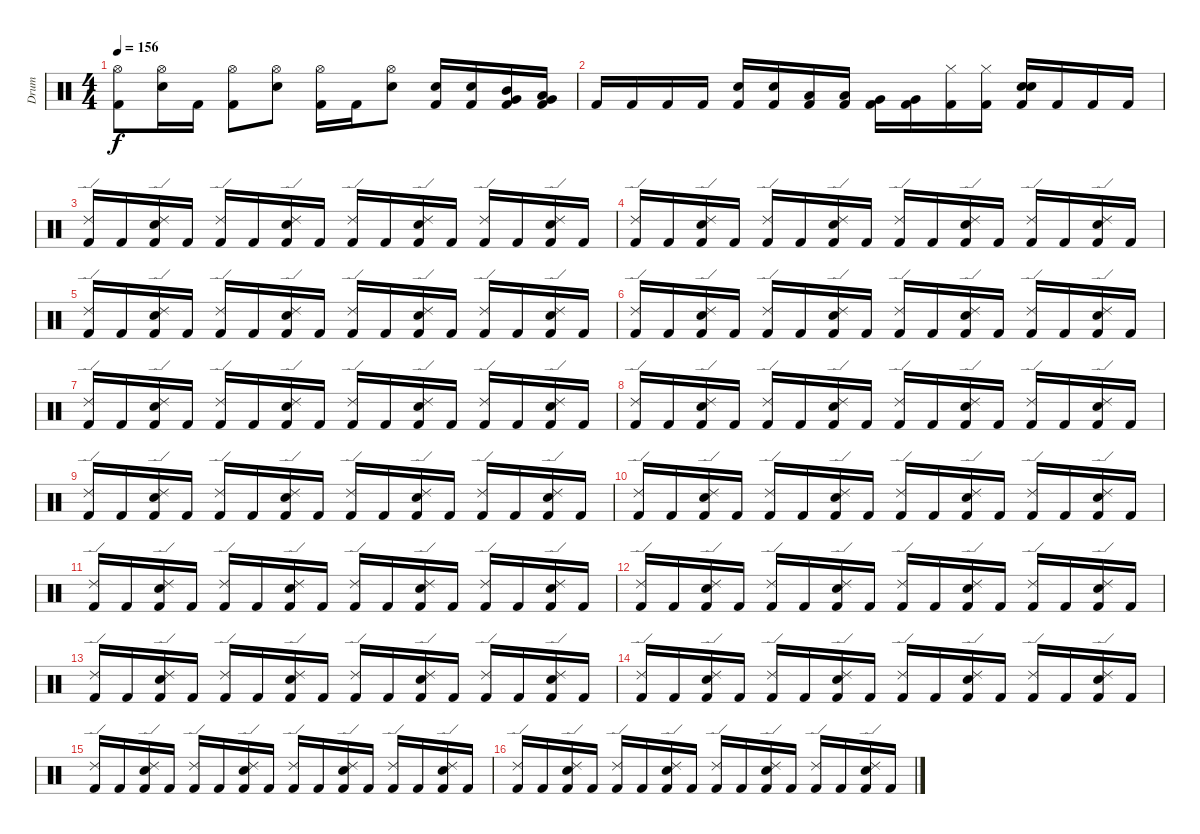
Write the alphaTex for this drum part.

\track (" Drum" " Drum") {instrument percussion}
\staff {score}
\articulation defaults
\ts (4 4)
\tempo 156
\clef neutral
\ks c
("Kick (hit) 2" "Hi-Hat (open)").8{dy f} ("Snare (hit) 2" "Hi-Hat (open)").16 "Kick (hit) 2".16 ("Kick (hit) 2" "Hi-Hat (open)").8 ("Snare (hit) 2" "Hi-Hat (open)").8 ("Kick (hit) 2" "Hi-Hat (open)").16 "Kick (hit) 2".16 ("Snare (hit) 2" "Hi-Hat (open)").8 ("Snare (hit) 2" "Kick (hit) 2").16 ("Snare (hit) 2" "Kick (hit) 2").16 ("Very Low Tom (hit)" "Mid Tom (hit)" "Kick (hit) 2").16 ("Low Tom (hit)" "Very Low Tom (hit)" "Kick (hit) 2").16 |
"Kick (hit) 2".16 "Kick (hit) 2".16 "Kick (hit) 2".16 "Kick (hit) 2".16 ("Snare (hit) 2" "Kick (hit) 2").16 ("Snare (hit) 2" "Kick (hit) 2").16 ("Low Tom (hit)" "Kick (hit) 2").16 ("Low Tom (hit)" "Kick (hit) 2").16 ("Very Low Tom (hit)" "Kick (hit) 2").16 ("Very Low Tom (hit)" "Kick (hit) 2").16 ("Hi-Hat (closed)" "Kick (hit) 2").16 ("Hi-Hat (closed)" "Kick (hit) 2").16 ("Snare (hit) 2" "Electric Snare (hit)" "Kick (hit) 2").16 "Kick (hit) 2".16 "Kick (hit) 2".16 "Kick (hit) 2".16 |
("Ride (edge) 2" "Kick (hit) 2").16 "Kick (hit) 2".16 ("Snare (hit) 2" "Ride (edge) 2" "Kick (hit) 2").16 "Kick (hit) 2".16 ("Ride (edge) 2" "Kick (hit) 2").16 "Kick (hit) 2".16 ("Snare (hit) 2" "Ride (edge) 2" "Kick (hit) 2").16 "Kick (hit) 2".16 ("Ride (edge) 2" "Kick (hit) 2").16 "Kick (hit) 2".16 ("Snare (hit) 2" "Ride (edge) 2" "Kick (hit) 2").16 "Kick (hit) 2".16 ("Ride (edge) 2" "Kick (hit) 2").16 "Kick (hit) 2".16 ("Snare (hit) 2" "Ride (edge) 2" "Kick (hit) 2").16 "Kick (hit) 2".16 |
("Ride (edge) 2" "Kick (hit) 2").16 "Kick (hit) 2".16 ("Snare (hit) 2" "Ride (edge) 2" "Kick (hit) 2").16 "Kick (hit) 2".16 ("Ride (edge) 2" "Kick (hit) 2").16 "Kick (hit) 2".16 ("Snare (hit) 2" "Ride (edge) 2" "Kick (hit) 2").16 "Kick (hit) 2".16 ("Ride (edge) 2" "Kick (hit) 2").16 "Kick (hit) 2".16 ("Snare (hit) 2" "Ride (edge) 2" "Kick (hit) 2").16 "Kick (hit) 2".16 ("Ride (edge) 2" "Kick (hit) 2").16 "Kick (hit) 2".16 ("Snare (hit) 2" "Ride (edge) 2" "Kick (hit) 2").16 "Kick (hit) 2".16 |
("Ride (edge) 2" "Kick (hit) 2").16 "Kick (hit) 2".16 ("Snare (hit) 2" "Ride (edge) 2" "Kick (hit) 2").16 "Kick (hit) 2".16 ("Ride (edge) 2" "Kick (hit) 2").16 "Kick (hit) 2".16 ("Snare (hit) 2" "Ride (edge) 2" "Kick (hit) 2").16 "Kick (hit) 2".16 ("Ride (edge) 2" "Kick (hit) 2").16 "Kick (hit) 2".16 ("Snare (hit) 2" "Ride (edge) 2" "Kick (hit) 2").16 "Kick (hit) 2".16 ("Ride (edge) 2" "Kick (hit) 2").16 "Kick (hit) 2".16 ("Snare (hit) 2" "Ride (edge) 2" "Kick (hit) 2").16 "Kick (hit) 2".16 |
("Ride (edge) 2" "Kick (hit) 2").16 "Kick (hit) 2".16 ("Snare (hit) 2" "Ride (edge) 2" "Kick (hit) 2").16 "Kick (hit) 2".16 ("Ride (edge) 2" "Kick (hit) 2").16 "Kick (hit) 2".16 ("Snare (hit) 2" "Ride (edge) 2" "Kick (hit) 2").16 "Kick (hit) 2".16 ("Ride (edge) 2" "Kick (hit) 2").16 "Kick (hit) 2".16 ("Snare (hit) 2" "Ride (edge) 2" "Kick (hit) 2").16 "Kick (hit) 2".16 ("Ride (edge) 2" "Kick (hit) 2").16 "Kick (hit) 2".16 ("Snare (hit) 2" "Ride (edge) 2" "Kick (hit) 2").16 "Kick (hit) 2".16 |
("Ride (edge) 2" "Kick (hit) 2").16 "Kick (hit) 2".16 ("Snare (hit) 2" "Ride (edge) 2" "Kick (hit) 2").16 "Kick (hit) 2".16 ("Ride (edge) 2" "Kick (hit) 2").16 "Kick (hit) 2".16 ("Snare (hit) 2" "Ride (edge) 2" "Kick (hit) 2").16 "Kick (hit) 2".16 ("Ride (edge) 2" "Kick (hit) 2").16 "Kick (hit) 2".16 ("Snare (hit) 2" "Ride (edge) 2" "Kick (hit) 2").16 "Kick (hit) 2".16 ("Ride (edge) 2" "Kick (hit) 2").16 "Kick (hit) 2".16 ("Snare (hit) 2" "Ride (edge) 2" "Kick (hit) 2").16 "Kick (hit) 2".16 |
("Ride (edge) 2" "Kick (hit) 2").16 "Kick (hit) 2".16 ("Snare (hit) 2" "Ride (edge) 2" "Kick (hit) 2").16 "Kick (hit) 2".16 ("Ride (edge) 2" "Kick (hit) 2").16 "Kick (hit) 2".16 ("Snare (hit) 2" "Ride (edge) 2" "Kick (hit) 2").16 "Kick (hit) 2".16 ("Ride (edge) 2" "Kick (hit) 2").16 "Kick (hit) 2".16 ("Snare (hit) 2" "Ride (edge) 2" "Kick (hit) 2").16 "Kick (hit) 2".16 ("Ride (edge) 2" "Kick (hit) 2").16 "Kick (hit) 2".16 ("Snare (hit) 2" "Ride (edge) 2" "Kick (hit) 2").16 "Kick (hit) 2".16 |
("Ride (edge) 2" "Kick (hit) 2").16 "Kick (hit) 2".16 ("Snare (hit) 2" "Ride (edge) 2" "Kick (hit) 2").16 "Kick (hit) 2".16 ("Ride (edge) 2" "Kick (hit) 2").16 "Kick (hit) 2".16 ("Snare (hit) 2" "Ride (edge) 2" "Kick (hit) 2").16 "Kick (hit) 2".16 ("Ride (edge) 2" "Kick (hit) 2").16 "Kick (hit) 2".16 ("Snare (hit) 2" "Ride (edge) 2" "Kick (hit) 2").16 "Kick (hit) 2".16 ("Ride (edge) 2" "Kick (hit) 2").16 "Kick (hit) 2".16 ("Snare (hit) 2" "Ride (edge) 2" "Kick (hit) 2").16 "Kick (hit) 2".16 |
("Ride (edge) 2" "Kick (hit) 2").16 "Kick (hit) 2".16 ("Snare (hit) 2" "Ride (edge) 2" "Kick (hit) 2").16 "Kick (hit) 2".16 ("Ride (edge) 2" "Kick (hit) 2").16 "Kick (hit) 2".16 ("Snare (hit) 2" "Ride (edge) 2" "Kick (hit) 2").16 "Kick (hit) 2".16 ("Ride (edge) 2" "Kick (hit) 2").16 "Kick (hit) 2".16 ("Snare (hit) 2" "Ride (edge) 2" "Kick (hit) 2").16 "Kick (hit) 2".16 ("Ride (edge) 2" "Kick (hit) 2").16 "Kick (hit) 2".16 ("Snare (hit) 2" "Ride (edge) 2" "Kick (hit) 2").16 "Kick (hit) 2".16 |
("Ride (edge) 2" "Kick (hit) 2").16 "Kick (hit) 2".16 ("Snare (hit) 2" "Ride (edge) 2" "Kick (hit) 2").16 "Kick (hit) 2".16 ("Ride (edge) 2" "Kick (hit) 2").16 "Kick (hit) 2".16 ("Snare (hit) 2" "Ride (edge) 2" "Kick (hit) 2").16 "Kick (hit) 2".16 ("Ride (edge) 2" "Kick (hit) 2").16 "Kick (hit) 2".16 ("Snare (hit) 2" "Ride (edge) 2" "Kick (hit) 2").16 "Kick (hit) 2".16 ("Ride (edge) 2" "Kick (hit) 2").16 "Kick (hit) 2".16 ("Snare (hit) 2" "Ride (edge) 2" "Kick (hit) 2").16 "Kick (hit) 2".16 |
("Ride (edge) 2" "Kick (hit) 2").16 "Kick (hit) 2".16 ("Snare (hit) 2" "Ride (edge) 2" "Kick (hit) 2").16 "Kick (hit) 2".16 ("Ride (edge) 2" "Kick (hit) 2").16 "Kick (hit) 2".16 ("Snare (hit) 2" "Ride (edge) 2" "Kick (hit) 2").16 "Kick (hit) 2".16 ("Ride (edge) 2" "Kick (hit) 2").16 "Kick (hit) 2".16 ("Snare (hit) 2" "Ride (edge) 2" "Kick (hit) 2").16 "Kick (hit) 2".16 ("Ride (edge) 2" "Kick (hit) 2").16 "Kick (hit) 2".16 ("Snare (hit) 2" "Ride (edge) 2" "Kick (hit) 2").16 "Kick (hit) 2".16 |
("Ride (edge) 2" "Kick (hit) 2").16 "Kick (hit) 2".16 ("Snare (hit) 2" "Ride (edge) 2" "Kick (hit) 2").16 "Kick (hit) 2".16 ("Ride (edge) 2" "Kick (hit) 2").16 "Kick (hit) 2".16 ("Snare (hit) 2" "Ride (edge) 2" "Kick (hit) 2").16 "Kick (hit) 2".16 ("Ride (edge) 2" "Kick (hit) 2").16 "Kick (hit) 2".16 ("Snare (hit) 2" "Ride (edge) 2" "Kick (hit) 2").16 "Kick (hit) 2".16 ("Ride (edge) 2" "Kick (hit) 2").16 "Kick (hit) 2".16 ("Snare (hit) 2" "Ride (edge) 2" "Kick (hit) 2").16 "Kick (hit) 2".16 |
("Ride (edge) 2" "Kick (hit) 2").16 "Kick (hit) 2".16 ("Snare (hit) 2" "Ride (edge) 2" "Kick (hit) 2").16 "Kick (hit) 2".16 ("Ride (edge) 2" "Kick (hit) 2").16 "Kick (hit) 2".16 ("Snare (hit) 2" "Ride (edge) 2" "Kick (hit) 2").16 "Kick (hit) 2".16 ("Ride (edge) 2" "Kick (hit) 2").16 "Kick (hit) 2".16 ("Snare (hit) 2" "Ride (edge) 2" "Kick (hit) 2").16 "Kick (hit) 2".16 ("Ride (edge) 2" "Kick (hit) 2").16 "Kick (hit) 2".16 ("Snare (hit) 2" "Ride (edge) 2" "Kick (hit) 2").16 "Kick (hit) 2".16 |
("Ride (edge) 2" "Kick (hit) 2").16 "Kick (hit) 2".16 ("Snare (hit) 2" "Ride (edge) 2" "Kick (hit) 2").16 "Kick (hit) 2".16 ("Ride (edge) 2" "Kick (hit) 2").16 "Kick (hit) 2".16 ("Snare (hit) 2" "Ride (edge) 2" "Kick (hit) 2").16 "Kick (hit) 2".16 ("Ride (edge) 2" "Kick (hit) 2").16 "Kick (hit) 2".16 ("Snare (hit) 2" "Ride (edge) 2" "Kick (hit) 2").16 "Kick (hit) 2".16 ("Ride (edge) 2" "Kick (hit) 2").16 "Kick (hit) 2".16 ("Snare (hit) 2" "Ride (edge) 2" "Kick (hit) 2").16 "Kick (hit) 2".16 |
("Ride (edge) 2" "Kick (hit) 2").16 "Kick (hit) 2".16 ("Snare (hit) 2" "Ride (edge) 2" "Kick (hit) 2").16 "Kick (hit) 2".16 ("Ride (edge) 2" "Kick (hit) 2").16 "Kick (hit) 2".16 ("Snare (hit) 2" "Ride (edge) 2" "Kick (hit) 2").16 "Kick (hit) 2".16 ("Ride (edge) 2" "Kick (hit) 2").16 "Kick (hit) 2".16 ("Snare (hit) 2" "Ride (edge) 2" "Kick (hit) 2").16 "Kick (hit) 2".16 ("Ride (edge) 2" "Kick (hit) 2").16 "Kick (hit) 2".16 ("Snare (hit) 2" "Ride (edge) 2" "Kick (hit) 2").16 "Kick (hit) 2".16
